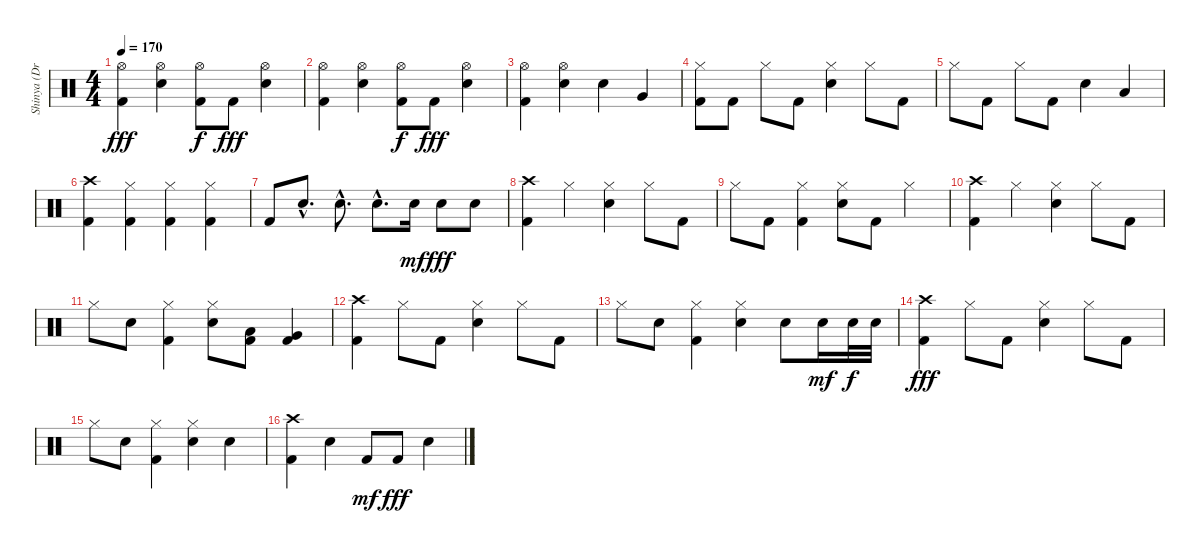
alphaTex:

\track ("Shinya (Drums)" "Shinya (Dr") {instrument percussion}
\staff {score}
\articulation defaults
\ts (4 4)
\tempo 170
\clef neutral
\ks c
("Hi-Hat (open)" "Kick (hit) 2").4{dy fff} ("Hi-Hat (open)" "Electric Snare (hit)").4 ("Hi-Hat (open)" "Kick (hit) 2").8{dy f} "Kick (hit) 2".8{dy fff} ("Hi-Hat (open)" "Electric Snare (hit)").4 |
("Hi-Hat (open)" "Kick (hit) 2").4 ("Hi-Hat (open)" "Electric Snare (hit)").4 ("Hi-Hat (open)" "Kick (hit) 2").8{dy f} "Kick (hit) 2".8{dy fff} ("Hi-Hat (open)" "Electric Snare (hit)").4 |
("Hi-Hat (open)" "Kick (hit) 2").4 ("Hi-Hat (open)" "Electric Snare (hit)").4 "Electric Snare (hit)".4 "Very Low Tom (hit)".4 |
("Hi-Hat (closed)" "Kick (hit) 2").8 "Kick (hit) 2".8 "Hi-Hat (closed)".8 "Kick (hit) 2".8 ("Hi-Hat (closed)" "Electric Snare (hit)").4 "Hi-Hat (closed)".8 "Kick (hit) 2".8 |
"Hi-Hat (closed)".8 "Kick (hit) 2".8 "Hi-Hat (closed)".8 "Kick (hit) 2".8 "Electric Snare (hit)".4 "Low Tom (hit)".4 |
("Crash high (hit)" "Kick (hit) 2").4 ("Hi-Hat (closed)" "Kick (hit) 2").4 ("Hi-Hat (closed)" "Kick (hit) 2").4 ("Hi-Hat (closed)" "Kick (hit) 2").4 |
"Kick (hit) 2".8 "Electric Snare (hit)"{hac}.8{d} "Electric Snare (hit)"{hac}.8{d} "Electric Snare (hit)"{hac}.8{d} "Electric Snare (hit)".16{dy mf} "Electric Snare (hit)".8{dy fff} "Electric Snare (hit)".8 |
("Crash high (hit)" "Kick (hit) 2").4 "Hi-Hat (closed)".4 ("Hi-Hat (closed)" "Electric Snare (hit)").4 "Hi-Hat (closed)".8 "Kick (hit) 2".8 |
"Hi-Hat (closed)".8 "Kick (hit) 2".8 ("Hi-Hat (closed)" "Kick (hit) 2").4 ("Hi-Hat (closed)" "Electric Snare (hit)").8 "Kick (hit) 2".8 "Hi-Hat (closed)".4 |
("Crash high (hit)" "Kick (hit) 2").4 "Hi-Hat (closed)".4 ("Hi-Hat (closed)" "Electric Snare (hit)").4 "Hi-Hat (closed)".8 "Kick (hit) 2".8 |
"Hi-Hat (closed)".8 "Electric Snare (hit)".8 ("Hi-Hat (closed)" "Kick (hit) 2").4 ("Hi-Hat (closed)" "Electric Snare (hit)").8 ("Low Tom (hit)" "Kick (hit) 2").8 ("Very Low Tom (hit)" "Kick (hit) 2").4 |
("Crash high (hit)" "Kick (hit) 2").4 "Hi-Hat (closed)".8 "Kick (hit) 2".8 ("Hi-Hat (closed)" "Electric Snare (hit)").4 "Hi-Hat (closed)".8 "Kick (hit) 2".8 |
"Hi-Hat (closed)".8 "Electric Snare (hit)".8 ("Hi-Hat (closed)" "Kick (hit) 2").4 ("Hi-Hat (closed)" "Electric Snare (hit)").4 "Electric Snare (hit)".8 "Electric Snare (hit)".16{dy mf} "Electric Snare (hit)".32{dy f} "Electric Snare (hit)".32 |
("Crash high (hit)" "Kick (hit) 2").4{dy fff} "Hi-Hat (closed)".8 "Kick (hit) 2".8 ("Hi-Hat (closed)" "Electric Snare (hit)").4 "Hi-Hat (closed)".8 "Kick (hit) 2".8 |
"Hi-Hat (closed)".8 "Electric Snare (hit)".8 ("Hi-Hat (closed)" "Kick (hit) 2").4 ("Hi-Hat (closed)" "Electric Snare (hit)").4 "Electric Snare (hit)".4 |
("Crash high (hit)" "Kick (hit) 2").4 "Electric Snare (hit)".4 "Kick (hit) 2".8{dy mf} "Kick (hit) 2".8{dy fff} "Electric Snare (hit)".4
